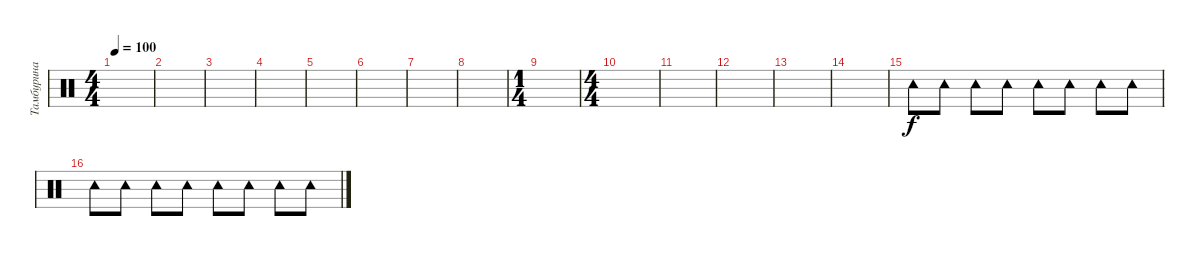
\track ("Тамбурина" "Тамбурина") {instrument percussion}
\staff {score}
\articulation defaults
\ts (4 4)
\tempo 100
\clef neutral
\ks c
|
|
|
|
|
|
|
|
\ts (1 4)
|
\ts (4 4)
|
|
|
|
|
"Tambourine (hit)".8 "Tambourine (hit)".8 "Tambourine (hit)".8 "Tambourine (hit)".8 "Tambourine (hit)".8 "Tambourine (hit)".8 "Tambourine (hit)".8 "Tambourine (hit)".8 |
"Tambourine (hit)".8 "Tambourine (hit)".8 "Tambourine (hit)".8 "Tambourine (hit)".8 "Tambourine (hit)".8 "Tambourine (hit)".8 "Tambourine (hit)".8 "Tambourine (hit)".8
